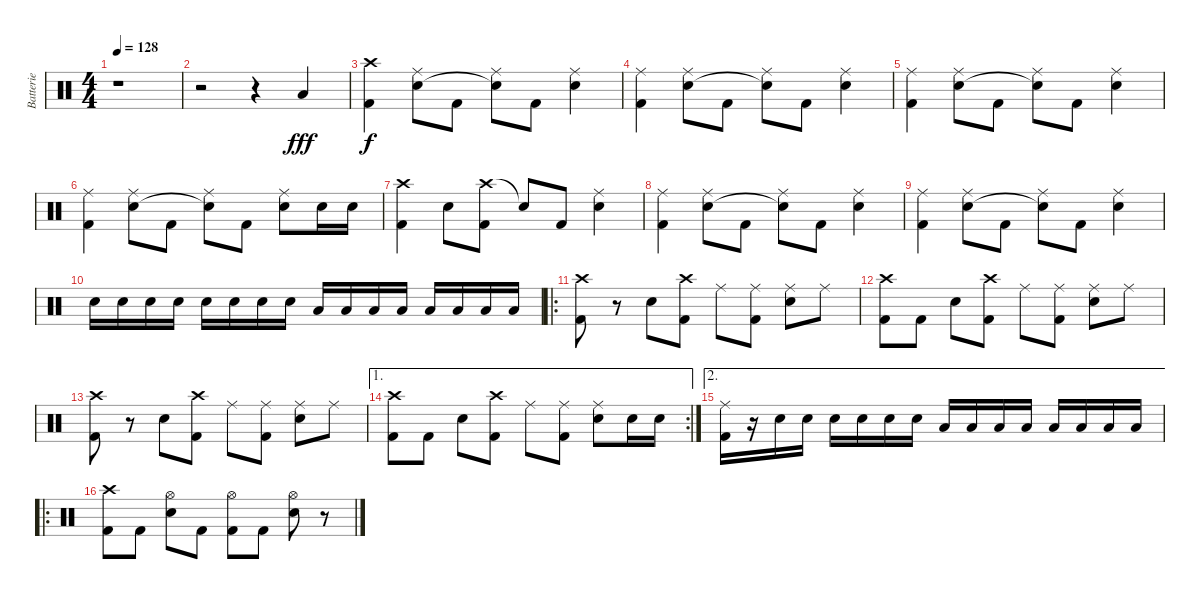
\track ("Batterie" "Batterie") {instrument percussion}
\staff {score}
\articulation defaults
\ts (4 4)
\tempo 128
\clef neutral
\ks c
r.1{dy fff} |
r.2 r.4 "Low Floor Tom (hit)".4 |
("Crash high (hit)" "Kick (hit) 2").4{dy f} ("Ride (middle)" "Snare (hit) 2").8 "Kick (hit) 2".8 ("Ride (middle)" "Snare (hit)"{t}).8 "Kick (hit) 2".8 ("Ride (middle)" "Snare (hit) 2").4 |
("Ride (middle)" "Kick (hit) 2").4 ("Ride (middle)" "Snare (hit) 2").8 "Kick (hit) 2".8 ("Ride (middle)" "Snare (hit)"{t}).8 "Kick (hit) 2".8 ("Ride (middle)" "Snare (hit) 2").4 |
("Ride (middle)" "Kick (hit) 2").4 ("Ride (middle)" "Snare (hit) 2").8 "Kick (hit) 2".8 ("Ride (middle)" "Snare (hit)"{t}).8 "Kick (hit) 2".8 ("Ride (middle)" "Snare (hit) 2").4 |
("Ride (middle)" "Kick (hit) 2").4 ("Ride (middle)" "Snare (hit) 2").8 "Kick (hit) 2".8 ("Ride (middle)" "Snare (hit)"{t}).8 "Kick (hit) 2".8 ("Ride (middle)" "Snare (hit) 2").8 "Snare (hit) 2".16 "Snare (hit) 2".16 |
("Crash high (hit)" "Kick (hit) 2").4 "Snare (hit) 2".8 ("Crash high (hit)" "Kick (hit) 2").8 "Snare (hit)"{t}.8 "Kick (hit) 2".8 ("Ride (middle)" "Snare (hit) 2").4 |
("Ride (middle)" "Kick (hit) 2").4 ("Ride (middle)" "Snare (hit) 2").8 "Kick (hit) 2".8 ("Ride (middle)" "Snare (hit)"{t}).8 "Kick (hit) 2".8 ("Ride (middle)" "Snare (hit) 2").4 |
("Ride (middle)" "Kick (hit) 2").4 ("Ride (middle)" "Snare (hit) 2").8 "Kick (hit) 2".8 ("Ride (middle)" "Snare (hit)"{t}).8 "Kick (hit) 2".8 ("Ride (middle)" "Snare (hit) 2").4 |
"Snare (hit) 2".16 "Snare (hit) 2".16 "Snare (hit) 2".16 "Snare (hit) 2".16 "Snare (hit) 2".16 "Snare (hit) 2".16 "Snare (hit) 2".16 "Snare (hit) 2".16 "Low Tom (hit)".16 "Low Tom (hit)".16 "Low Tom (hit)".16 "Low Tom (hit)".16 "Low Floor Tom (hit)".16 "Low Floor Tom (hit)".16 "Low Floor Tom (hit)".16 "Low Floor Tom (hit)".16 |
\ro
("Crash high (hit)" "Kick (hit) 2").8 r.8 "Snare (hit) 2".8 ("Crash high (hit)" "Kick (hit) 2").8 "Ride (middle)".8 ("Ride (middle)" "Kick (hit) 2").8 ("Ride (middle)" "Snare (hit) 2").8 "Ride (middle)".8 |
("Crash high (hit)" "Kick (hit) 2").8 "Kick (hit) 2".8 "Snare (hit) 2".8 ("Crash high (hit)" "Kick (hit) 2").8 "Ride (middle)".8 ("Ride (middle)" "Kick (hit) 2").8 ("Ride (middle)" "Snare (hit) 2").8 "Ride (middle)".8 |
("Crash high (hit)" "Kick (hit) 2").8 r.8 "Snare (hit) 2".8 ("Crash high (hit)" "Kick (hit) 2").8 "Ride (middle)".8 ("Ride (middle)" "Kick (hit) 2").8 ("Ride (middle)" "Snare (hit) 2").8 "Ride (middle)".8 |
\ae 1
\rc 2
("Crash high (hit)" "Kick (hit) 2").8 "Kick (hit) 2".8 "Snare (hit) 2".8 ("Crash high (hit)" "Kick (hit) 2").8 "Ride (middle)".8 ("Ride (middle)" "Kick (hit) 2").8 ("Ride (middle)" "Snare (hit) 2").8 "Snare (hit) 2".16 "Snare (hit) 2".16 |
\ae 2
("Ride (middle)" "Kick (hit) 2").16 r.16 "Snare (hit) 2".16 "Snare (hit) 2".16 "Snare (hit) 2".16 "Snare (hit) 2".16 "Snare (hit) 2".16 "Snare (hit) 2".16 "Low Tom (hit)".16 "Low Tom (hit)".16 "Low Tom (hit)".16 "Low Tom (hit)".16 "Low Floor Tom (hit)".16 "Low Floor Tom (hit)".16 "Low Floor Tom (hit)".16 "Low Floor Tom (hit)".16 |
\ro
("Crash high (hit)" "Kick (hit) 2").8 "Kick (hit) 2".8 ("Hi-Hat (open)" "Snare (hit) 2").8 "Kick (hit) 2".8 ("Hi-Hat (open)" "Kick (hit) 2").8 "Kick (hit) 2".8 ("Hi-Hat (open)" "Snare (hit) 2").8 r.8
